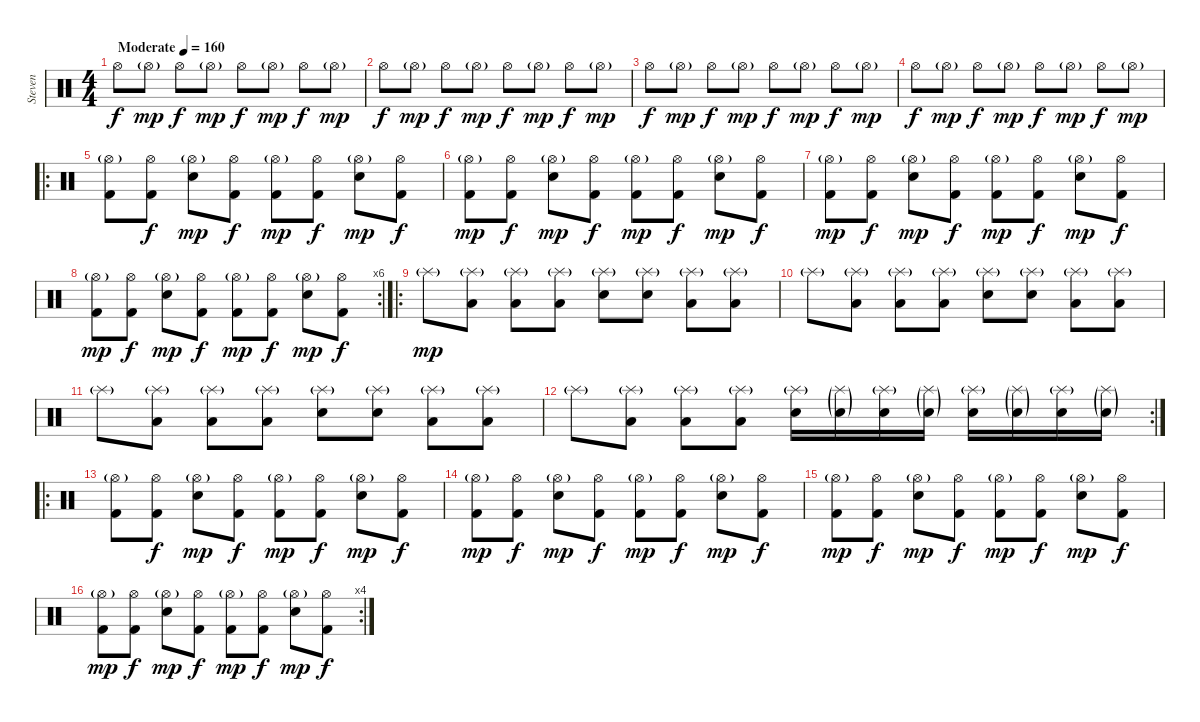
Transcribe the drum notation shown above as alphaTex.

\track ("Steven" "Steven") {instrument percussion}
\staff {score}
\articulation defaults
\ts (4 4)
\tempo (160 "Moderate")
\clef neutral
\ks c "Hi-Hat (open)".8{dy f} "Hi-Hat (open)"{g}.8{dy mp} "Hi-Hat (open)".8{dy f} "Hi-Hat (open)"{g}.8{dy mp} "Hi-Hat (open)".8{dy f} "Hi-Hat (open)"{g}.8{dy mp} "Hi-Hat (open)".8{dy f} "Hi-Hat (open)"{g}.8{dy mp}
|
"Hi-Hat (open)".8{dy f} "Hi-Hat (open)"{g}.8{dy mp} "Hi-Hat (open)".8{dy f} "Hi-Hat (open)"{g}.8{dy mp} "Hi-Hat (open)".8{dy f} "Hi-Hat (open)"{g}.8{dy mp} "Hi-Hat (open)".8{dy f} "Hi-Hat (open)"{g}.8{dy mp} |
"Hi-Hat (open)".8{dy f} "Hi-Hat (open)"{g}.8{dy mp} "Hi-Hat (open)".8{dy f} "Hi-Hat (open)"{g}.8{dy mp} "Hi-Hat (open)".8{dy f} "Hi-Hat (open)"{g}.8{dy mp} "Hi-Hat (open)".8{dy f} "Hi-Hat (open)"{g}.8{dy mp} |
"Hi-Hat (open)".8{dy f} "Hi-Hat (open)"{g}.8{dy mp} "Hi-Hat (open)".8{dy f} "Hi-Hat (open)"{g}.8{dy mp} "Hi-Hat (open)".8{dy f} "Hi-Hat (open)"{g}.8{dy mp} "Hi-Hat (open)".8{dy f} "Hi-Hat (open)"{g}.8{dy mp} |
\ro
("Kick (hit) 2" "Hi-Hat (open)"{g}).8 ("Kick (hit) 2" "Hi-Hat (open)").8{dy f} ("Electric Snare (hit)" "Hi-Hat (open)"{g}).8{dy mp} ("Kick (hit) 2" "Hi-Hat (open)").8{dy f} ("Kick (hit) 2" "Hi-Hat (open)"{g}).8{dy mp} ("Kick (hit) 2" "Hi-Hat (open)").8{dy f} ("Electric Snare (hit)" "Hi-Hat (open)"{g}).8{dy mp} ("Kick (hit) 2" "Hi-Hat (open)").8{dy f} |
("Kick (hit) 2" "Hi-Hat (open)"{g}).8{dy mp} ("Kick (hit) 2" "Hi-Hat (open)").8{dy f} ("Electric Snare (hit)" "Hi-Hat (open)"{g}).8{dy mp} ("Kick (hit) 2" "Hi-Hat (open)").8{dy f} ("Kick (hit) 2" "Hi-Hat (open)"{g}).8{dy mp} ("Kick (hit) 2" "Hi-Hat (open)").8{dy f} ("Electric Snare (hit)" "Hi-Hat (open)"{g}).8{dy mp} ("Kick (hit) 2" "Hi-Hat (open)").8{dy f} |
("Kick (hit) 2" "Hi-Hat (open)"{g}).8{dy mp} ("Kick (hit) 2" "Hi-Hat (open)").8{dy f} ("Electric Snare (hit)" "Hi-Hat (open)"{g}).8{dy mp} ("Kick (hit) 2" "Hi-Hat (open)").8{dy f} ("Kick (hit) 2" "Hi-Hat (open)"{g}).8{dy mp} ("Kick (hit) 2" "Hi-Hat (open)").8{dy f} ("Electric Snare (hit)" "Hi-Hat (open)"{g}).8{dy mp} ("Kick (hit) 2" "Hi-Hat (open)").8{dy f} |
\rc 6
("Kick (hit) 2" "Hi-Hat (open)"{g}).8{dy mp} ("Kick (hit) 2" "Hi-Hat (open)").8{dy f} ("Electric Snare (hit)" "Hi-Hat (open)"{g}).8{dy mp} ("Kick (hit) 2" "Hi-Hat (open)").8{dy f} ("Kick (hit) 2" "Hi-Hat (open)"{g}).8{dy mp} ("Kick (hit) 2" "Hi-Hat (open)").8{dy f} ("Electric Snare (hit)" "Hi-Hat (open)"{g}).8{dy mp} ("Kick (hit) 2" "Hi-Hat (open)").8{dy f} |
\ro "Splash (hit)"{g}.8{dy mp}
("Low Tom (hit)" "Splash (hit)"{g}).8 ("Low Tom (hit)" "Splash (hit)"{g}).8 ("Low Tom (hit)" "Splash (hit)"{g}).8 ("Electric Snare (hit)" "Splash (hit)"{g}).8 ("Electric Snare (hit)" "Splash (hit)"{g}).8 ("Low Tom (hit)" "Splash (hit)"{g}).8 ("Low Tom (hit)" "Splash (hit)"{g}).8 |
"Splash (hit)"{g}.8 ("Low Tom (hit)" "Splash (hit)"{g}).8 ("Low Tom (hit)" "Splash (hit)"{g}).8 ("Low Tom (hit)" "Splash (hit)"{g}).8 ("Electric Snare (hit)" "Splash (hit)"{g}).8 ("Electric Snare (hit)" "Splash (hit)"{g}).8 ("Low Tom (hit)" "Splash (hit)"{g}).8 ("Low Tom (hit)" "Splash (hit)"{g}).8 |
"Splash (hit)"{g}.8 ("Low Tom (hit)" "Splash (hit)"{g}).8 ("Low Tom (hit)" "Splash (hit)"{g}).8 ("Low Tom (hit)" "Splash (hit)"{g}).8 ("Electric Snare (hit)" "Splash (hit)"{g}).8 ("Electric Snare (hit)" "Splash (hit)"{g}).8 ("Low Tom (hit)" "Splash (hit)"{g}).8 ("Low Tom (hit)" "Splash (hit)"{g}).8 |
\rc 2 "Splash (hit)"{g}.8
("Low Tom (hit)" "Splash (hit)"{g}).8 ("Low Tom (hit)" "Splash (hit)"{g}).8 ("Low Tom (hit)" "Splash (hit)"{g}).8 ("Electric Snare (hit)" "Splash (hit)"{g}).16 ("Electric Snare (hit)"{g} "Splash (hit)"{g}).16 ("Electric Snare (hit)" "Splash (hit)"{g}).16 ("Electric Snare (hit)"{g} "Splash (hit)"{g}).16 ("Electric Snare (hit)" "Splash (hit)"{g}).16 ("Electric Snare (hit)"{g} "Splash (hit)"{g}).16 ("Electric Snare (hit)" "Splash (hit)"{g}).16 ("Electric Snare (hit)"{g} "Splash (hit)"{g}).16 |
\ro
("Kick (hit) 2" "Hi-Hat (open)"{g}).8 ("Kick (hit) 2" "Hi-Hat (open)").8{dy f} ("Electric Snare (hit)" "Hi-Hat (open)"{g}).8{dy mp} ("Kick (hit) 2" "Hi-Hat (open)").8{dy f} ("Kick (hit) 2" "Hi-Hat (open)"{g}).8{dy mp} ("Kick (hit) 2" "Hi-Hat (open)").8{dy f} ("Electric Snare (hit)" "Hi-Hat (open)"{g}).8{dy mp} ("Kick (hit) 2" "Hi-Hat (open)").8{dy f} |
("Kick (hit) 2" "Hi-Hat (open)"{g}).8{dy mp} ("Kick (hit) 2" "Hi-Hat (open)").8{dy f} ("Electric Snare (hit)" "Hi-Hat (open)"{g}).8{dy mp} ("Kick (hit) 2" "Hi-Hat (open)").8{dy f} ("Kick (hit) 2" "Hi-Hat (open)"{g}).8{dy mp} ("Kick (hit) 2" "Hi-Hat (open)").8{dy f} ("Electric Snare (hit)" "Hi-Hat (open)"{g}).8{dy mp} ("Kick (hit) 2" "Hi-Hat (open)").8{dy f} |
("Kick (hit) 2" "Hi-Hat (open)"{g}).8{dy mp} ("Kick (hit) 2" "Hi-Hat (open)").8{dy f} ("Electric Snare (hit)" "Hi-Hat (open)"{g}).8{dy mp} ("Kick (hit) 2" "Hi-Hat (open)").8{dy f} ("Kick (hit) 2" "Hi-Hat (open)"{g}).8{dy mp} ("Kick (hit) 2" "Hi-Hat (open)").8{dy f} ("Electric Snare (hit)" "Hi-Hat (open)"{g}).8{dy mp} ("Kick (hit) 2" "Hi-Hat (open)").8{dy f} |
\rc 4
("Kick (hit) 2" "Hi-Hat (open)"{g}).8{dy mp} ("Kick (hit) 2" "Hi-Hat (open)").8{dy f} ("Electric Snare (hit)" "Hi-Hat (open)"{g}).8{dy mp} ("Kick (hit) 2" "Hi-Hat (open)").8{dy f} ("Kick (hit) 2" "Hi-Hat (open)"{g}).8{dy mp} ("Kick (hit) 2" "Hi-Hat (open)").8{dy f} ("Electric Snare (hit)" "Hi-Hat (open)"{g}).8{dy mp} ("Kick (hit) 2" "Hi-Hat (open)").8{dy f}
